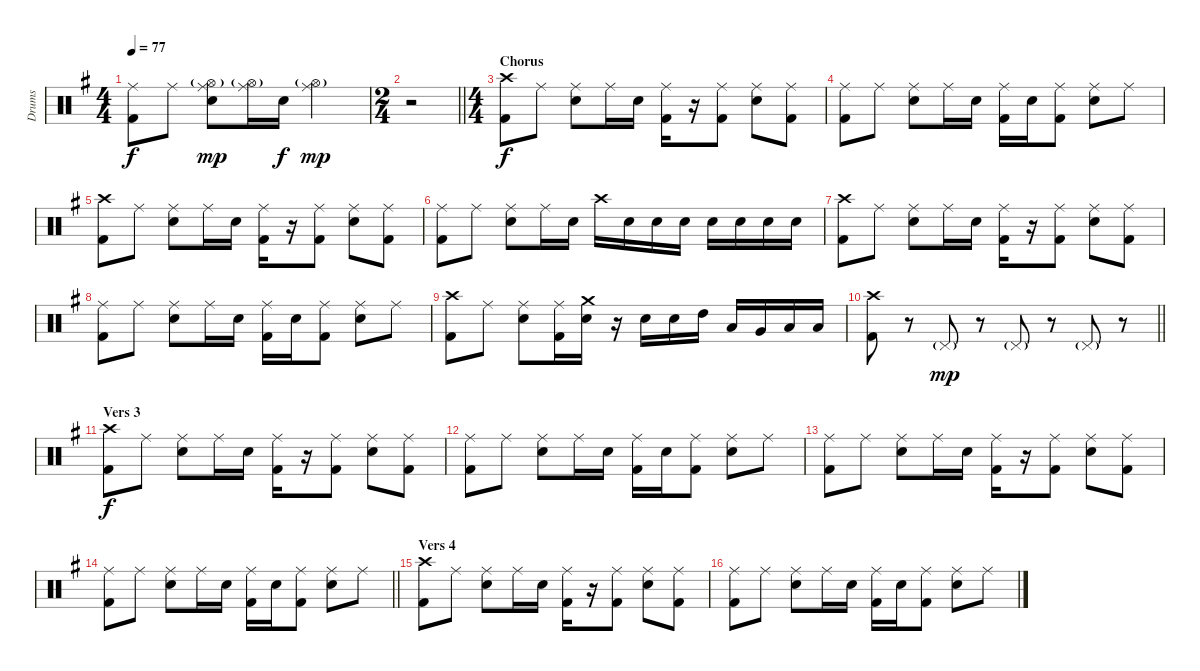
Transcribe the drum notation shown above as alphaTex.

\track ("Drums" "Drums") {instrument percussion}
\staff {score}
\articulation defaults
\ts (4 4)
\tempo 77
\clef neutral
\ks eminor
("Ride (middle)" "Kick (hit) 2").8{dy f} "Ride (middle)".8 ("Ride (middle)" "Hi-Hat (open)"{g} "Electric Snare (hit)").8{dy mp} ("Ride (middle)" "Hi-Hat (open)"{g}).16 "Electric Snare (hit)".16{dy f} ("Ride (middle)" "Hi-Hat (open)"{g}).2{dy mp} |
\ts (2 4)
\barLineRight lightlight
r.2 |
\ts (4 4)
\section ("" "Chorus")
("Crash high (hit)" "Kick (hit) 2").8{dy f} "Ride (middle)".8 ("Ride (middle)" "Electric Snare (hit)").8 "Ride (middle)".16 "Electric Snare (hit)".16 ("Ride (middle)" "Kick (hit) 2").16 r.16 ("Ride (middle)" "Kick (hit) 2").8 ("Ride (middle)" "Electric Snare (hit)").8 ("Ride (middle)" "Kick (hit) 2").8 |
("Ride (middle)" "Kick (hit) 2").8 "Ride (middle)".8 ("Ride (middle)" "Electric Snare (hit)").8 "Ride (middle)".16 "Electric Snare (hit)".16 ("Ride (middle)" "Kick (hit) 2").16 "Electric Snare (hit)".16 ("Ride (middle)" "Kick (hit) 2").8 ("Ride (middle)" "Electric Snare (hit)").8 "Ride (middle)".8 |
("Crash high (hit)" "Kick (hit) 2").8 "Ride (middle)".8 ("Ride (middle)" "Electric Snare (hit)").8 "Ride (middle)".16 "Electric Snare (hit)".16 ("Ride (middle)" "Kick (hit) 2").16 r.16 ("Ride (middle)" "Kick (hit) 2").8 ("Ride (middle)" "Electric Snare (hit)").8 ("Ride (middle)" "Kick (hit) 2").8 |
("Ride (middle)" "Kick (hit) 2").8 "Ride (middle)".8 ("Ride (middle)" "Electric Snare (hit)").8 "Ride (middle)".16 "Electric Snare (hit)".16 "Crash high (hit)".16 "Electric Snare (hit)".16 "Electric Snare (hit)".16 "Electric Snare (hit)".16 "Electric Snare (hit)".16 "Electric Snare (hit)".16 "Electric Snare (hit)".16 "Electric Snare (hit)".16 |
("Crash high (hit)" "Kick (hit) 2").8 "Ride (middle)".8 ("Ride (middle)" "Electric Snare (hit)").8 "Ride (middle)".16 "Electric Snare (hit)".16 ("Ride (middle)" "Kick (hit) 2").16 r.16 ("Ride (middle)" "Kick (hit) 2").8 ("Ride (middle)" "Electric Snare (hit)").8 ("Ride (middle)" "Kick (hit) 2").8 |
("Ride (middle)" "Kick (hit) 2").8 "Ride (middle)".8 ("Ride (middle)" "Electric Snare (hit)").8 "Ride (middle)".16 "Electric Snare (hit)".16 ("Ride (middle)" "Kick (hit) 2").16 "Electric Snare (hit)".16 ("Ride (middle)" "Kick (hit) 2").8 ("Ride (middle)" "Electric Snare (hit)").8 "Ride (middle)".8 |
("Crash high (hit)" "Kick (hit) 2").8 "Ride (middle)".8 ("Ride (middle)" "Electric Snare (hit)").8 ("Ride (middle)" "Kick (hit) 2").16 ("Crash medium (hit)" "Electric Snare (hit)").16 r.16 "Electric Snare (hit)".16 "Electric Snare (hit)".16 "High Tom (hit)".16 "Low Tom (hit)".16 "Very Low Tom (hit)".16 "Low Floor Tom (hit)".16 "Low Floor Tom (hit)".16 |
\barLineRight lightlight
("Crash high (hit)" "Kick (hit) 2").8 r.8 "Pedal Hi-Hat (hit)"{g}.8{dy mp} r.8 "Pedal Hi-Hat (hit)"{g}.8 r.8 "Pedal Hi-Hat (hit)"{g}.8 r.8 |
\section ("" "Vers 3")
("Crash high (hit)" "Kick (hit) 2").8{dy f} "Ride (middle)".8 ("Ride (middle)" "Electric Snare (hit)").8 "Ride (middle)".16 "Electric Snare (hit)".16 ("Ride (middle)" "Kick (hit) 2").16 r.16 ("Ride (middle)" "Kick (hit) 2").8 ("Ride (middle)" "Electric Snare (hit)").8 ("Ride (middle)" "Kick (hit) 2").8 |
("Ride (middle)" "Kick (hit) 2").8 "Ride (middle)".8 ("Ride (middle)" "Electric Snare (hit)").8 "Ride (middle)".16 "Electric Snare (hit)".16 ("Ride (middle)" "Kick (hit) 2").16 "Electric Snare (hit)".16 ("Ride (middle)" "Kick (hit) 2").8 ("Ride (middle)" "Electric Snare (hit)").8 "Ride (middle)".8 |
("Ride (middle)" "Kick (hit) 2").8 "Ride (middle)".8 ("Ride (middle)" "Electric Snare (hit)").8 "Ride (middle)".16 "Electric Snare (hit)".16 ("Ride (middle)" "Kick (hit) 2").16 r.16 ("Ride (middle)" "Kick (hit) 2").8 ("Ride (middle)" "Electric Snare (hit)").8 ("Ride (middle)" "Kick (hit) 2").8 |
\barLineRight lightlight
("Ride (middle)" "Kick (hit) 2").8 "Ride (middle)".8 ("Ride (middle)" "Electric Snare (hit)").8 "Ride (middle)".16 "Electric Snare (hit)".16 ("Ride (middle)" "Kick (hit) 2").16 "Electric Snare (hit)".16 ("Ride (middle)" "Kick (hit) 2").8 ("Ride (middle)" "Electric Snare (hit)").8 "Ride (middle)".8 |
\section ("" "Vers 4")
("Crash high (hit)" "Kick (hit) 2").8 "Ride (middle)".8 ("Ride (middle)" "Electric Snare (hit)").8 "Ride (middle)".16 "Electric Snare (hit)".16 ("Ride (middle)" "Kick (hit) 2").16 r.16 ("Ride (middle)" "Kick (hit) 2").8 ("Ride (middle)" "Electric Snare (hit)").8 ("Ride (middle)" "Kick (hit) 2").8 |
("Ride (middle)" "Kick (hit) 2").8 "Ride (middle)".8 ("Ride (middle)" "Electric Snare (hit)").8 "Ride (middle)".16 "Electric Snare (hit)".16 ("Ride (middle)" "Kick (hit) 2").16 "Electric Snare (hit)".16 ("Ride (middle)" "Kick (hit) 2").8 ("Ride (middle)" "Electric Snare (hit)").8 "Ride (middle)".8
